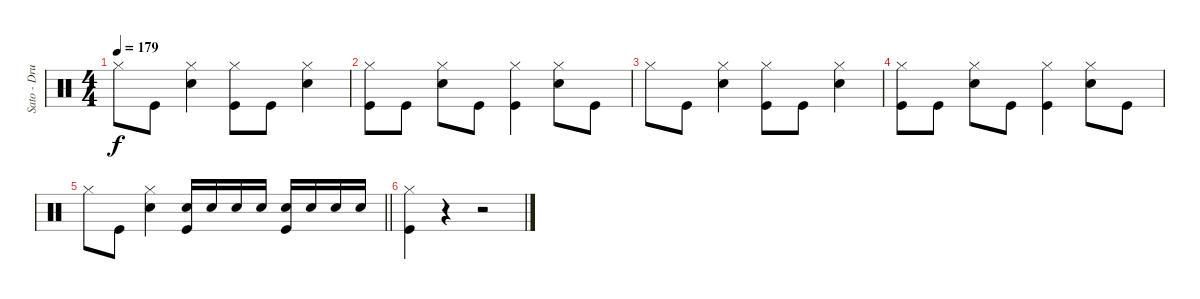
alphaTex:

\track ("Sato - Drums" "Sato - Dru") {instrument percussion}
\staff {score}
\articulation defaults
\ts (4 4)
\tempo 179
\clef neutral
\ks c "Hi-Hat (closed)".8{dy f} "Kick (hit)".8
("Hi-Hat (closed)" "Electric Snare (hit)").4 ("Hi-Hat (closed)" "Kick (hit)").8 "Kick (hit)".8 ("Hi-Hat (closed)" "Electric Snare (hit)").4 |
("Hi-Hat (closed)" "Kick (hit)").8 "Kick (hit)".8 ("Hi-Hat (closed)" "Electric Snare (hit)").8 "Kick (hit)".8 ("Hi-Hat (closed)" "Kick (hit)").4 ("Hi-Hat (closed)" "Electric Snare (hit)").8 "Kick (hit)".8 |
"Hi-Hat (closed)".8 "Kick (hit)".8 ("Hi-Hat (closed)" "Electric Snare (hit)").4 ("Hi-Hat (closed)" "Kick (hit)").8 "Kick (hit)".8 ("Hi-Hat (closed)" "Electric Snare (hit)").4 |
("Hi-Hat (closed)" "Kick (hit)").8 "Kick (hit)".8 ("Hi-Hat (closed)" "Electric Snare (hit)").8 "Kick (hit)".8 ("Hi-Hat (closed)" "Kick (hit)").4 ("Hi-Hat (closed)" "Electric Snare (hit)").8 "Kick (hit)".8 |
\barLineRight lightlight "Hi-Hat (closed)".8 "Kick (hit)".8
("Hi-Hat (closed)" "Electric Snare (hit)").4 ("Electric Snare (hit)" "Kick (hit)").16 "Electric Snare (hit)".16 "Electric Snare (hit)".16 "Electric Snare (hit)".16 ("Electric Snare (hit)" "Kick (hit)").16 "Electric Snare (hit)".16 "Electric Snare (hit)".16 "Electric Snare (hit)".16 |
("Hi-Hat (closed)" "Kick (hit)").4 r.4 r.2
